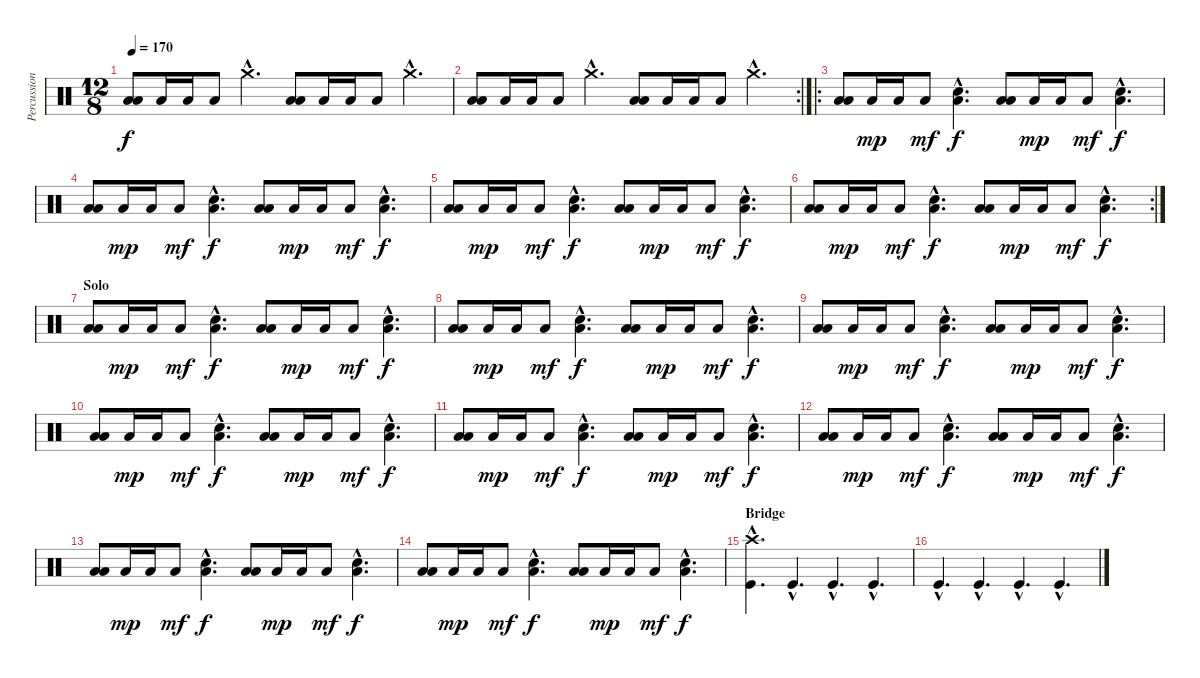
\track ("Percussion" "Percussion") {instrument percussion}
\staff {score}
\articulation defaults
\ts (12 8)
\tempo 170
\clef neutral
\ks c
("Low Tom (hit)" "Low Tom (hit)").8{dy f} "Low Tom (hit)".16 "Low Tom (hit)".16 "Low Tom (hit)".8 "Crash medium (hit)"{hac}.4{d} ("Low Tom (hit)" "Low Tom (hit)").8 "Low Tom (hit)".16 "Low Tom (hit)".16 "Low Tom (hit)".8 "Crash medium (hit)"{hac}.4{d} |
\rc 2
("Low Tom (hit)" "Low Tom (hit)").8 "Low Tom (hit)".16 "Low Tom (hit)".16 "Low Tom (hit)".8 "Crash medium (hit)"{hac}.4{d} ("Low Tom (hit)" "Low Tom (hit)").8 "Low Tom (hit)".16 "Low Tom (hit)".16 "Low Tom (hit)".8 "Crash medium (hit)"{hac}.4{d} |
\ro
("Low Tom (hit)" "Low Tom (hit)").8 "Low Tom (hit)".16{dy mp} "Low Tom (hit)".16 "Low Tom (hit)".8{dy mf} ("Snare (hit) 2"{hac} "Low Tom (hit)"{hac}).4{d dy f} ("Low Tom (hit)" "Low Tom (hit)").8 "Low Tom (hit)".16{dy mp} "Low Tom (hit)".16 "Low Tom (hit)".8{dy mf} ("Snare (hit) 2"{hac} "Low Tom (hit)"{hac}).4{d dy f} |
("Low Tom (hit)" "Low Tom (hit)").8 "Low Tom (hit)".16{dy mp} "Low Tom (hit)".16 "Low Tom (hit)".8{dy mf} ("Snare (hit) 2"{hac} "Low Tom (hit)"{hac}).4{d dy f} ("Low Tom (hit)" "Low Tom (hit)").8 "Low Tom (hit)".16{dy mp} "Low Tom (hit)".16 "Low Tom (hit)".8{dy mf} ("Snare (hit) 2"{hac} "Low Tom (hit)"{hac}).4{d dy f} |
("Low Tom (hit)" "Low Tom (hit)").8 "Low Tom (hit)".16{dy mp} "Low Tom (hit)".16 "Low Tom (hit)".8{dy mf} ("Snare (hit) 2"{hac} "Low Tom (hit)"{hac}).4{d dy f} ("Low Tom (hit)" "Low Tom (hit)").8 "Low Tom (hit)".16{dy mp} "Low Tom (hit)".16 "Low Tom (hit)".8{dy mf} ("Snare (hit) 2"{hac} "Low Tom (hit)"{hac}).4{d dy f} |
\rc 2
("Low Tom (hit)" "Low Tom (hit)").8 "Low Tom (hit)".16{dy mp} "Low Tom (hit)".16 "Low Tom (hit)".8{dy mf} ("Snare (hit) 2"{hac} "Low Tom (hit)"{hac}).4{d dy f} ("Low Tom (hit)" "Low Tom (hit)").8 "Low Tom (hit)".16{dy mp} "Low Tom (hit)".16 "Low Tom (hit)".8{dy mf} ("Snare (hit) 2"{hac} "Low Tom (hit)"{hac}).4{d dy f} |
\section ("" "Solo")
("Low Tom (hit)" "Low Tom (hit)").8 "Low Tom (hit)".16{dy mp} "Low Tom (hit)".16 "Low Tom (hit)".8{dy mf} ("Snare (hit) 2"{hac} "Low Tom (hit)"{hac}).4{d dy f} ("Low Tom (hit)" "Low Tom (hit)").8 "Low Tom (hit)".16{dy mp} "Low Tom (hit)".16 "Low Tom (hit)".8{dy mf} ("Snare (hit) 2"{hac} "Low Tom (hit)"{hac}).4{d dy f} |
("Low Tom (hit)" "Low Tom (hit)").8 "Low Tom (hit)".16{dy mp} "Low Tom (hit)".16 "Low Tom (hit)".8{dy mf} ("Snare (hit) 2"{hac} "Low Tom (hit)"{hac}).4{d dy f} ("Low Tom (hit)" "Low Tom (hit)").8 "Low Tom (hit)".16{dy mp} "Low Tom (hit)".16 "Low Tom (hit)".8{dy mf} ("Snare (hit) 2"{hac} "Low Tom (hit)"{hac}).4{d dy f} |
("Low Tom (hit)" "Low Tom (hit)").8 "Low Tom (hit)".16{dy mp} "Low Tom (hit)".16 "Low Tom (hit)".8{dy mf} ("Snare (hit) 2"{hac} "Low Tom (hit)"{hac}).4{d dy f} ("Low Tom (hit)" "Low Tom (hit)").8 "Low Tom (hit)".16{dy mp} "Low Tom (hit)".16 "Low Tom (hit)".8{dy mf} ("Snare (hit) 2"{hac} "Low Tom (hit)"{hac}).4{d dy f} |
("Low Tom (hit)" "Low Tom (hit)").8 "Low Tom (hit)".16{dy mp} "Low Tom (hit)".16 "Low Tom (hit)".8{dy mf} ("Snare (hit) 2"{hac} "Low Tom (hit)"{hac}).4{d dy f} ("Low Tom (hit)" "Low Tom (hit)").8 "Low Tom (hit)".16{dy mp} "Low Tom (hit)".16 "Low Tom (hit)".8{dy mf} ("Snare (hit) 2"{hac} "Low Tom (hit)"{hac}).4{d dy f} |
("Low Tom (hit)" "Low Tom (hit)").8 "Low Tom (hit)".16{dy mp} "Low Tom (hit)".16 "Low Tom (hit)".8{dy mf} ("Snare (hit) 2"{hac} "Low Tom (hit)"{hac}).4{d dy f} ("Low Tom (hit)" "Low Tom (hit)").8 "Low Tom (hit)".16{dy mp} "Low Tom (hit)".16 "Low Tom (hit)".8{dy mf} ("Snare (hit) 2"{hac} "Low Tom (hit)"{hac}).4{d dy f} |
("Low Tom (hit)" "Low Tom (hit)").8 "Low Tom (hit)".16{dy mp} "Low Tom (hit)".16 "Low Tom (hit)".8{dy mf} ("Snare (hit) 2"{hac} "Low Tom (hit)"{hac}).4{d dy f} ("Low Tom (hit)" "Low Tom (hit)").8 "Low Tom (hit)".16{dy mp} "Low Tom (hit)".16 "Low Tom (hit)".8{dy mf} ("Snare (hit) 2"{hac} "Low Tom (hit)"{hac}).4{d dy f} |
("Low Tom (hit)" "Low Tom (hit)").8 "Low Tom (hit)".16{dy mp} "Low Tom (hit)".16 "Low Tom (hit)".8{dy mf} ("Snare (hit) 2"{hac} "Low Tom (hit)"{hac}).4{d dy f} ("Low Tom (hit)" "Low Tom (hit)").8 "Low Tom (hit)".16{dy mp} "Low Tom (hit)".16 "Low Tom (hit)".8{dy mf} ("Snare (hit) 2"{hac} "Low Tom (hit)"{hac}).4{d dy f} |
("Low Tom (hit)" "Low Tom (hit)").8 "Low Tom (hit)".16{dy mp} "Low Tom (hit)".16 "Low Tom (hit)".8{dy mf} ("Snare (hit) 2"{hac} "Low Tom (hit)"{hac}).4{d dy f} ("Low Tom (hit)" "Low Tom (hit)").8 "Low Tom (hit)".16{dy mp} "Low Tom (hit)".16 "Low Tom (hit)".8{dy mf} ("Snare (hit) 2"{hac} "Low Tom (hit)"{hac}).4{d dy f} |
\section ("" "Bridge")
("Crash high (hit)"{hac} "Kick (hit)"{hac}).4{d} "Kick (hit)"{hac}.4{d} "Kick (hit)"{hac}.4{d} "Kick (hit)"{hac}.4{d} |
"Kick (hit)"{hac}.4{d} "Kick (hit)"{hac}.4{d} "Kick (hit)"{hac}.4{d} "Kick (hit)"{hac}.4{d}
